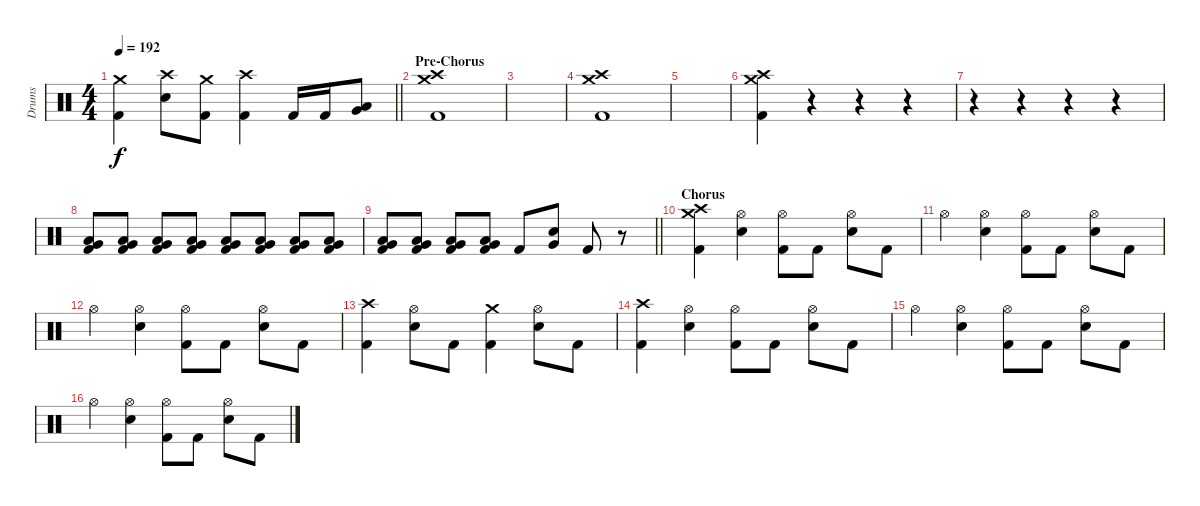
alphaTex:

\track ("Drums" "Drums") {instrument percussion}
\staff {score}
\articulation defaults
\ts (4 4)
\tempo 192
\clef neutral
\barLineRight lightlight
\ks c
("Crash medium (hit)" "Kick (hit) 2").4{dy f} ("Crash high (hit)" "Electric Snare (hit)").8 ("Crash medium (hit)" "Kick (hit) 2").8 ("Crash high (hit)" "Kick (hit) 2").4 "Kick (hit) 2".16 "Kick (hit) 2".16 ("Very Low Tom (hit)" "Low Floor Tom (hit)").8 |
\section ("" "Pre-Chorus")
("Crash high (hit)" "Crash medium (hit)" "Kick (hit) 2").1 |
|
("Crash high (hit)" "Crash medium (hit)" "Kick (hit) 2").1 |
|
("Crash high (hit)" "Crash medium (hit)" "Kick (hit) 2").4 r.4 r.4 r.4 |
r.4{volume 1} r.4 r.4 r.4 |
("Very Low Tom (hit)" "Low Floor Tom (hit)" "Kick (hit) 2").8{volume 13} ("Very Low Tom (hit)" "Low Floor Tom (hit)" "Kick (hit) 2").8 ("Very Low Tom (hit)" "Low Floor Tom (hit)" "Kick (hit) 2").8 ("Very Low Tom (hit)" "Low Floor Tom (hit)" "Kick (hit) 2").8 ("Very Low Tom (hit)" "Low Floor Tom (hit)" "Kick (hit) 2").8 ("Very Low Tom (hit)" "Low Floor Tom (hit)" "Kick (hit) 2").8 ("Very Low Tom (hit)" "Low Floor Tom (hit)" "Kick (hit) 2").8 ("Very Low Tom (hit)" "Low Floor Tom (hit)" "Kick (hit) 2").8 |
\barLineRight lightlight
("Very Low Tom (hit)" "Low Floor Tom (hit)" "Kick (hit) 2").8 ("Very Low Tom (hit)" "Low Floor Tom (hit)" "Kick (hit) 2").8 ("Very Low Tom (hit)" "Low Floor Tom (hit)" "Kick (hit) 2").8 ("Very Low Tom (hit)" "Low Floor Tom (hit)" "Kick (hit) 2").8 "Kick (hit) 2".8 ("Very Low Tom (hit)" "Electric Snare (hit)").8 "Kick (hit) 2".8 r.8 |
\section ("" "Chorus")
("Crash medium (hit)" "Crash high (hit)" "Kick (hit) 2").4 ("Hi-Hat (open)" "Electric Snare (hit)").4 ("Hi-Hat (open)" "Kick (hit) 2").8 "Kick (hit) 2".8 ("Hi-Hat (open)" "Electric Snare (hit)").8 "Kick (hit) 2".8 |
"Hi-Hat (open)".4 ("Hi-Hat (open)" "Electric Snare (hit)").4 ("Hi-Hat (open)" "Kick (hit) 2").8 "Kick (hit) 2".8 ("Hi-Hat (open)" "Electric Snare (hit)").8 "Kick (hit) 2".8 |
"Hi-Hat (open)".4 ("Hi-Hat (open)" "Electric Snare (hit)").4 ("Hi-Hat (open)" "Kick (hit) 2").8 "Kick (hit) 2".8 ("Hi-Hat (open)" "Electric Snare (hit)").8 "Kick (hit) 2".8 |
("Crash high (hit)" "Kick (hit) 2").4 ("Hi-Hat (open)" "Electric Snare (hit)").8 "Kick (hit) 2".8 ("Crash medium (hit)" "Kick (hit) 2").4 ("Hi-Hat (open)" "Electric Snare (hit)").8 "Kick (hit) 2".8 |
("Crash high (hit)" "Kick (hit) 2").4 ("Hi-Hat (open)" "Electric Snare (hit)").4 ("Hi-Hat (open)" "Kick (hit) 2").8 "Kick (hit) 2".8 ("Hi-Hat (open)" "Electric Snare (hit)").8 "Kick (hit) 2".8 |
"Hi-Hat (open)".4 ("Hi-Hat (open)" "Electric Snare (hit)").4 ("Hi-Hat (open)" "Kick (hit) 2").8 "Kick (hit) 2".8 ("Hi-Hat (open)" "Electric Snare (hit)").8 "Kick (hit) 2".8 |
"Hi-Hat (open)".4 ("Hi-Hat (open)" "Electric Snare (hit)").4 ("Hi-Hat (open)" "Kick (hit) 2").8 "Kick (hit) 2".8 ("Hi-Hat (open)" "Electric Snare (hit)").8 "Kick (hit) 2".8
